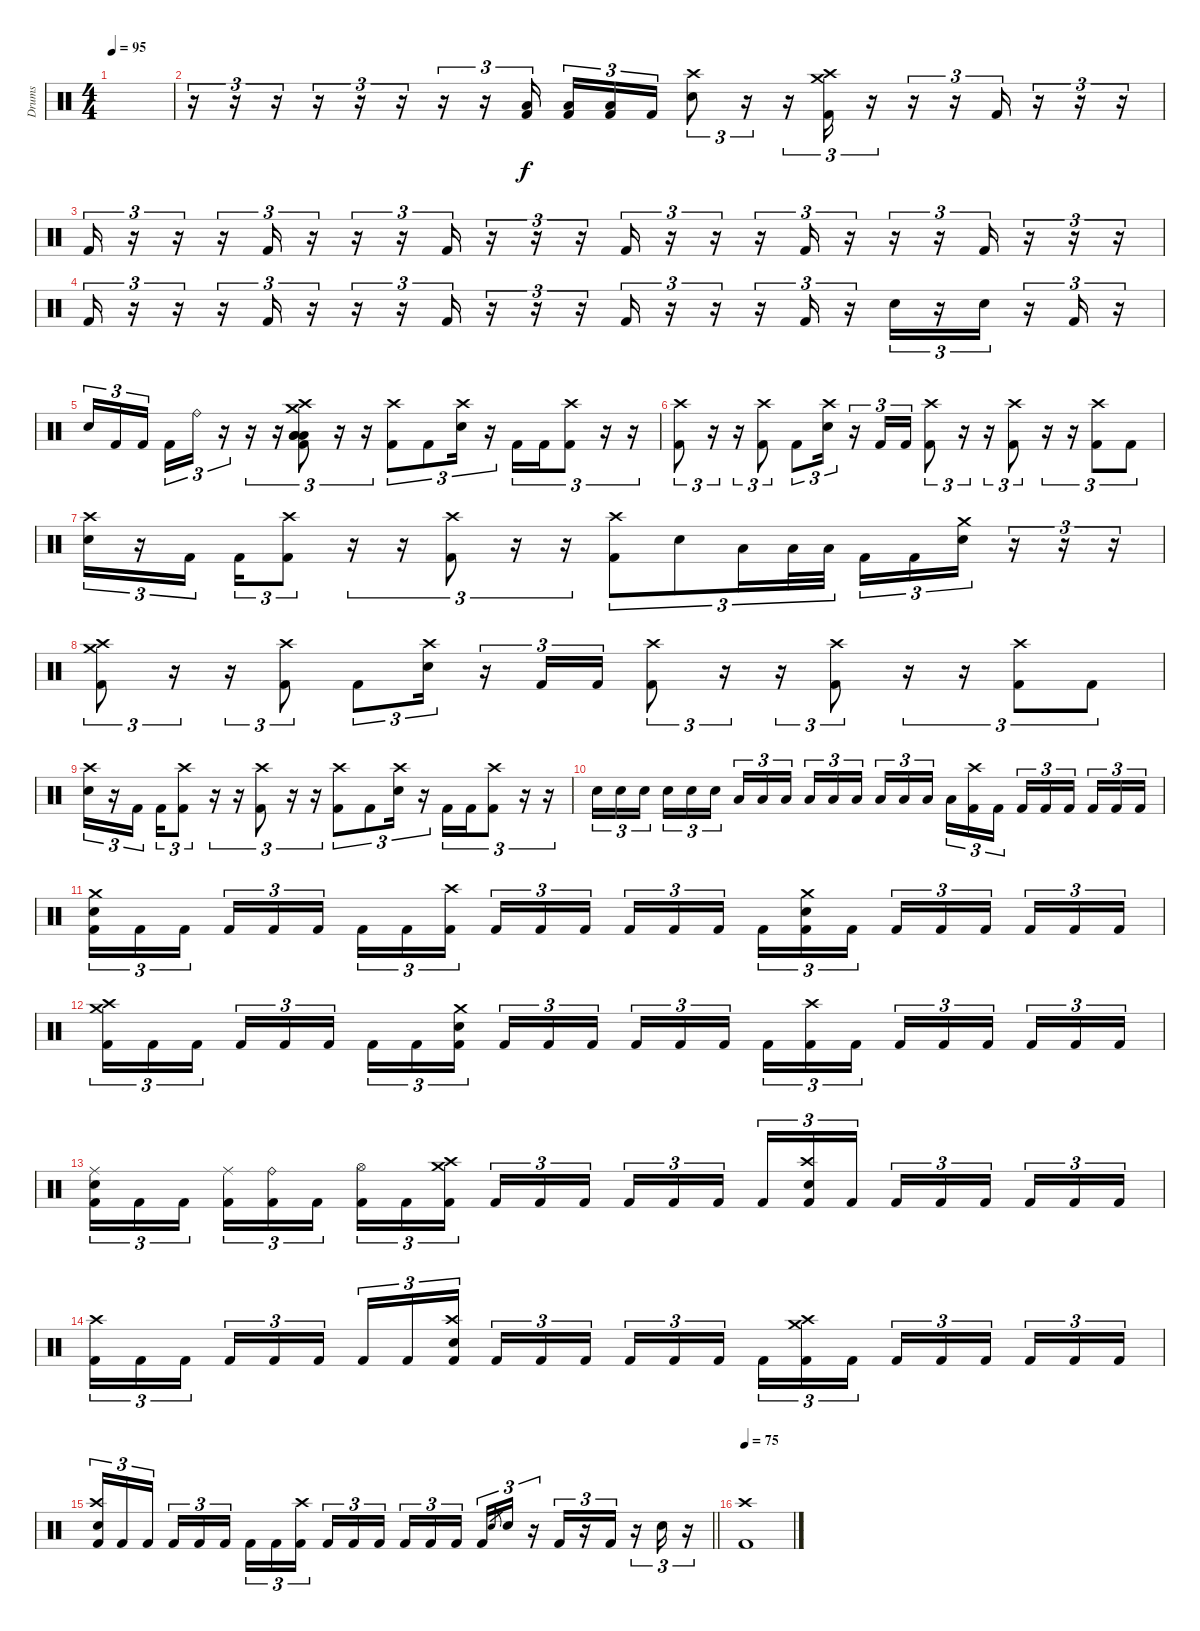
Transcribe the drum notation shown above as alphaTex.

\track ("Drums" "Drums") {instrument percussion}
\staff {score}
\articulation defaults
\ts (4 4)
\tempo 95
\clef neutral
\ks c
|
r.16{tu (3 2)} r.16{tu (3 2)} r.16{tu (3 2)} r.16{tu (3 2)} r.16{tu (3 2)} r.16{tu (3 2)} r.16{tu (3 2)} r.16{tu (3 2)} ("Low Tom (hit)" "Kick (hit) 2").16{tu (3 2) beam splitsecondary} ("Low Tom (hit)" "Kick (hit) 2").16{tu (3 2)} ("Low Floor Tom (hit)" "Kick (hit) 2").16{tu (3 2)} "Kick (hit) 2".16{tu (3 2)} ("Crash high (hit)" "Electric Snare (hit)").8{tu (3 2)} r.16{tu (3 2)} r.16{tu (3 2)} ("Crash high (hit)" "Crash medium (hit)" "Kick (hit) 2").16{tu (3 2)} r.16{tu (3 2)} r.16{tu (3 2)} r.16{tu (3 2)} "Kick (hit) 2".16{tu (3 2)} r.16{tu (3 2)} r.16{tu (3 2)} r.16{tu (3 2)} |
"Kick (hit) 2".16{tu (3 2)} r.16{tu (3 2)} r.16{tu (3 2)} r.16{tu (3 2)} "Kick (hit) 2".16{tu (3 2)} r.16{tu (3 2)} r.16{tu (3 2)} r.16{tu (3 2)} "Kick (hit) 2".16{tu (3 2)} r.16{tu (3 2)} r.16{tu (3 2)} r.16{tu (3 2)} "Kick (hit) 2".16{tu (3 2)} r.16{tu (3 2)} r.16{tu (3 2)} r.16{tu (3 2)} "Kick (hit) 2".16{tu (3 2)} r.16{tu (3 2)} r.16{tu (3 2)} r.16{tu (3 2)} "Kick (hit) 2".16{tu (3 2)} r.16{tu (3 2)} r.16{tu (3 2)} r.16{tu (3 2)} |
"Kick (hit) 2".16{tu (3 2)} r.16{tu (3 2)} r.16{tu (3 2)} r.16{tu (3 2)} "Kick (hit) 2".16{tu (3 2)} r.16{tu (3 2)} r.16{tu (3 2)} r.16{tu (3 2)} "Kick (hit) 2".16{tu (3 2)} r.16{tu (3 2)} r.16{tu (3 2)} r.16{tu (3 2)} "Kick (hit) 2".16{tu (3 2)} r.16{tu (3 2)} r.16{tu (3 2)} r.16{tu (3 2)} "Kick (hit) 2".16{tu (3 2)} r.16{tu (3 2)} "Electric Snare (hit)".16{tu (3 2)} r.16{tu (3 2)} "Electric Snare (hit)".16{tu (3 2)} r.16{tu (3 2)} "Kick (hit) 2".16{tu (3 2)} r.16{tu (3 2)} |
"Electric Snare (hit)".16{tu (3 2)} "Kick (hit) 2".16{tu (3 2)} "Kick (hit) 2".16{tu (3 2) beam splitsecondary} "Kick (hit) 2".16{tu (3 2)} "Ride (bell)".16{tu (3 2)} r.16{tu (3 2)} r.16{tu (3 2)} r.16{tu (3 2)} ("Crash high (hit)" "Crash medium (hit)" "Low Tom (hit)" "Low Floor Tom (hit)" "Low Floor Tom (hit)" "Kick (hit) 2").8{tu (3 2)} r.16{tu (3 2)} r.16{tu (3 2)} ("Crash high (hit)" "Kick (hit) 2").8{tu (3 2)} "Kick (hit) 2".8{tu (3 2)} ("Crash high (hit)" "Electric Snare (hit)").16{tu (3 2)} r.16{tu (3 2)} "Kick (hit) 2".16{tu (3 2)} "Kick (hit) 2".16{tu (3 2)} ("Crash high (hit)" "Kick (hit) 2").8{tu (3 2)} r.16{tu (3 2)} r.16{tu (3 2)} |
("Crash high (hit)" "Kick (hit) 2").8{tu (3 2)} r.16{tu (3 2)} r.16{tu (3 2)} ("Crash high (hit)" "Kick (hit) 2").8{tu (3 2)} "Kick (hit) 2".8{tu (3 2)} ("Crash high (hit)" "Electric Snare (hit)").16{tu (3 2)} r.16{tu (3 2)} "Kick (hit) 2".16{tu (3 2)} "Kick (hit) 2".16{tu (3 2)} ("Crash high (hit)" "Kick (hit) 2").8{tu (3 2)} r.16{tu (3 2)} r.16{tu (3 2)} ("Crash high (hit)" "Kick (hit) 2").8{tu (3 2)} r.16{tu (3 2)} r.16{tu (3 2)} ("Crash high (hit)" "Kick (hit) 2").8{tu (3 2)} "Kick (hit) 2".8{tu (3 2)} |
("Crash high (hit)" "Electric Snare (hit)").16{tu (3 2)} r.16{tu (3 2)} "Kick (hit) 2".16{tu (3 2) beam splitsecondary} "Kick (hit) 2".16{tu (3 2)} ("Crash high (hit)" "Kick (hit) 2").8{tu (3 2)} r.16{tu (3 2)} r.16{tu (3 2)} ("Crash high (hit)" "Kick (hit) 2").8{tu (3 2)} r.16{tu (3 2)} r.16{tu (3 2)} ("Crash high (hit)" "Kick (hit) 2").8{tu (3 2)} "Electric Snare (hit)".8{tu (3 2)} "Low Tom (hit)".16{tu (3 2)} "Low Floor Tom (hit)".32{tu (3 2)} "Low Floor Tom (hit)".32{tu (3 2)} "Kick (hit) 2".16{tu (3 2)} "Kick (hit) 2".16{tu (3 2)} ("Crash medium (hit)" "Electric Snare (hit)").16{tu (3 2)} r.16{tu (3 2)} r.16{tu (3 2)} r.16{tu (3 2)} |
("Crash medium (hit)" "Crash high (hit)" "Kick (hit) 2").8{tu (3 2)} r.16{tu (3 2)} r.16{tu (3 2)} ("Crash high (hit)" "Kick (hit) 2").8{tu (3 2)} "Kick (hit) 2".8{tu (3 2)} ("Crash high (hit)" "Electric Snare (hit)").16{tu (3 2)} r.16{tu (3 2)} "Kick (hit) 2".16{tu (3 2)} "Kick (hit) 2".16{tu (3 2)} ("Crash high (hit)" "Kick (hit) 2").8{tu (3 2)} r.16{tu (3 2)} r.16{tu (3 2)} ("Crash high (hit)" "Kick (hit) 2").8{tu (3 2)} r.16{tu (3 2)} r.16{tu (3 2)} ("Crash high (hit)" "Kick (hit) 2").8{tu (3 2)} "Kick (hit) 2".8{tu (3 2)} |
("Crash high (hit)" "Electric Snare (hit)").16{tu (3 2)} r.16{tu (3 2)} "Kick (hit) 2".16{tu (3 2) beam splitsecondary} "Kick (hit) 2".16{tu (3 2)} ("Crash high (hit)" "Kick (hit) 2").8{tu (3 2)} r.16{tu (3 2)} r.16{tu (3 2)} ("Crash high (hit)" "Kick (hit) 2").8{tu (3 2)} r.16{tu (3 2)} r.16{tu (3 2)} ("Crash high (hit)" "Kick (hit) 2").8{tu (3 2)} "Kick (hit) 2".8{tu (3 2)} ("Crash high (hit)" "Electric Snare (hit)").16{tu (3 2)} r.16{tu (3 2)} "Kick (hit) 2".16{tu (3 2)} "Kick (hit) 2".16{tu (3 2)} ("Crash high (hit)" "Kick (hit) 2").8{tu (3 2)} r.16{tu (3 2)} r.16{tu (3 2)} |
"Electric Snare (hit)".16{tu (3 2)} "Electric Snare (hit)".16{tu (3 2)} "Electric Snare (hit)".16{tu (3 2) beam splitsecondary} "Electric Snare (hit)".16{tu (3 2)} "Electric Snare (hit)".16{tu (3 2)} "Electric Snare (hit)".16{tu (3 2)} "Low Tom (hit)".16{tu (3 2)} "Low Tom (hit)".16{tu (3 2)} "Low Tom (hit)".16{tu (3 2) beam splitsecondary} "Low Tom (hit)".16{tu (3 2)} "Low Tom (hit)".16{tu (3 2)} "Low Tom (hit)".16{tu (3 2)} "Low Floor Tom (hit)".16{tu (3 2)} "Low Floor Tom (hit)".16{tu (3 2)} "Low Floor Tom (hit)".16{tu (3 2) beam splitsecondary} "Low Floor Tom (hit)".16{tu (3 2)} ("Crash high (hit)" "Kick (hit) 2").16{tu (3 2)} "Kick (hit) 2".16{tu (3 2)} "Kick (hit) 2".16{tu (3 2)} "Kick (hit) 2".16{tu (3 2)} "Kick (hit) 2".16{tu (3 2) beam splitsecondary} "Kick (hit) 2".16{tu (3 2)} "Kick (hit) 2".16{tu (3 2)} "Kick (hit) 2".16{tu (3 2)} |
("Crash medium (hit)" "Electric Snare (hit)" "Kick (hit) 2").16{tu (3 2)} "Kick (hit) 2".16{tu (3 2)} "Kick (hit) 2".16{tu (3 2) beam splitsecondary} "Kick (hit) 2".16{tu (3 2)} "Kick (hit) 2".16{tu (3 2)} "Kick (hit) 2".16{tu (3 2)} "Kick (hit) 2".16{tu (3 2)} "Kick (hit) 2".16{tu (3 2)} ("Crash high (hit)" "Kick (hit) 2").16{tu (3 2) beam splitsecondary} "Kick (hit) 2".16{tu (3 2)} "Kick (hit) 2".16{tu (3 2)} "Kick (hit) 2".16{tu (3 2)} "Kick (hit) 2".16{tu (3 2)} "Kick (hit) 2".16{tu (3 2)} "Kick (hit) 2".16{tu (3 2) beam splitsecondary} "Kick (hit) 2".16{tu (3 2)} ("Crash medium (hit)" "Electric Snare (hit)" "Kick (hit) 2").16{tu (3 2)} "Kick (hit) 2".16{tu (3 2)} "Kick (hit) 2".16{tu (3 2)} "Kick (hit) 2".16{tu (3 2)} "Kick (hit) 2".16{tu (3 2) beam splitsecondary} "Kick (hit) 2".16{tu (3 2)} "Kick (hit) 2".16{tu (3 2)} "Kick (hit) 2".16{tu (3 2)} |
("Crash high (hit)" "Crash medium (hit)" "Kick (hit) 2").16{tu (3 2)} "Kick (hit) 2".16{tu (3 2)} "Kick (hit) 2".16{tu (3 2) beam splitsecondary} "Kick (hit) 2".16{tu (3 2)} "Kick (hit) 2".16{tu (3 2)} "Kick (hit) 2".16{tu (3 2)} "Kick (hit) 2".16{tu (3 2)} "Kick (hit) 2".16{tu (3 2)} ("Crash medium (hit)" "Electric Snare (hit)" "Kick (hit) 2").16{tu (3 2) beam splitsecondary} "Kick (hit) 2".16{tu (3 2)} "Kick (hit) 2".16{tu (3 2)} "Kick (hit) 2".16{tu (3 2)} "Kick (hit) 2".16{tu (3 2)} "Kick (hit) 2".16{tu (3 2)} "Kick (hit) 2".16{tu (3 2) beam splitsecondary} "Kick (hit) 2".16{tu (3 2)} ("Crash high (hit)" "Kick (hit) 2").16{tu (3 2)} "Kick (hit) 2".16{tu (3 2)} "Kick (hit) 2".16{tu (3 2)} "Kick (hit) 2".16{tu (3 2)} "Kick (hit) 2".16{tu (3 2) beam splitsecondary} "Kick (hit) 2".16{tu (3 2)} "Kick (hit) 2".16{tu (3 2)} "Kick (hit) 2".16{tu (3 2)} |
("Ride (middle)" "Electric Snare (hit)" "Kick (hit) 2").16{tu (3 2)} "Kick (hit) 2".16{tu (3 2)} "Kick (hit) 2".16{tu (3 2) beam splitsecondary} ("Ride (middle)" "Kick (hit) 2").16{tu (3 2)} ("Ride (bell)" "Kick (hit) 2").16{tu (3 2)} "Kick (hit) 2".16{tu (3 2)} ("Hi-Hat (open)" "Kick (hit) 2").16{tu (3 2)} "Kick (hit) 2".16{tu (3 2)} ("Crash high (hit)" "Crash medium (hit)" "Kick (hit) 2").16{tu (3 2) beam splitsecondary} "Kick (hit) 2".16{tu (3 2)} "Kick (hit) 2".16{tu (3 2)} "Kick (hit) 2".16{tu (3 2)} "Kick (hit) 2".16{tu (3 2)} "Kick (hit) 2".16{tu (3 2)} "Kick (hit) 2".16{tu (3 2) beam splitsecondary} "Kick (hit) 2".16{tu (3 2)} ("Crash high (hit)" "Electric Snare (hit)" "Kick (hit) 2").16{tu (3 2)} "Kick (hit) 2".16{tu (3 2)} "Kick (hit) 2".16{tu (3 2)} "Kick (hit) 2".16{tu (3 2)} "Kick (hit) 2".16{tu (3 2) beam splitsecondary} "Kick (hit) 2".16{tu (3 2)} "Kick (hit) 2".16{tu (3 2)} "Kick (hit) 2".16{tu (3 2)} |
("Crash high (hit)" "Kick (hit) 2").16{tu (3 2)} "Kick (hit) 2".16{tu (3 2)} "Kick (hit) 2".16{tu (3 2) beam splitsecondary} "Kick (hit) 2".16{tu (3 2)} "Kick (hit) 2".16{tu (3 2)} "Kick (hit) 2".16{tu (3 2)} "Kick (hit) 2".16{tu (3 2)} "Kick (hit) 2".16{tu (3 2)} ("Crash high (hit)" "Electric Snare (hit)" "Kick (hit) 2").16{tu (3 2) beam splitsecondary} "Kick (hit) 2".16{tu (3 2)} "Kick (hit) 2".16{tu (3 2)} "Kick (hit) 2".16{tu (3 2)} "Kick (hit) 2".16{tu (3 2)} "Kick (hit) 2".16{tu (3 2)} "Kick (hit) 2".16{tu (3 2) beam splitsecondary} "Kick (hit) 2".16{tu (3 2)} ("Crash high (hit)" "Crash medium (hit)" "Kick (hit) 2").16{tu (3 2)} "Kick (hit) 2".16{tu (3 2)} "Kick (hit) 2".16{tu (3 2)} "Kick (hit) 2".16{tu (3 2)} "Kick (hit) 2".16{tu (3 2) beam splitsecondary} "Kick (hit) 2".16{tu (3 2)} "Kick (hit) 2".16{tu (3 2)} "Kick (hit) 2".16{tu (3 2)} |
\barLineRight lightlight
("Crash high (hit)" "Electric Snare (hit)" "Kick (hit) 2").16{tu (3 2)} "Kick (hit) 2".16{tu (3 2)} "Kick (hit) 2".16{tu (3 2) beam splitsecondary} "Kick (hit) 2".16{tu (3 2)} "Kick (hit) 2".16{tu (3 2)} "Kick (hit) 2".16{tu (3 2)} "Kick (hit) 2".16{tu (3 2)} "Kick (hit) 2".16{tu (3 2)} ("Crash high (hit)" "Kick (hit) 2").16{tu (3 2) beam splitsecondary} "Kick (hit) 2".16{tu (3 2)} "Kick (hit) 2".16{tu (3 2)} "Kick (hit) 2".16{tu (3 2)} "Kick (hit) 2".16{tu (3 2)} "Kick (hit) 2".16{tu (3 2)} "Kick (hit) 2".16{tu (3 2) beam splitsecondary} "Kick (hit) 2".16{tu (3 2)} "Electric Snare (hit)".8{gr} "Electric Snare (hit)".16{tu (3 2)} r.16{tu (3 2)} "Kick (hit) 2".16{tu (3 2)} r.16{tu (3 2)} "Kick (hit) 2".16{tu (3 2)} r.16{tu (3 2)} "Electric Snare (hit)".16{tu (3 2)} r.16{tu (3 2)} |
\section ("" "")
\tempo 75
("Crash high (hit)" "Kick (hit) 2").1
